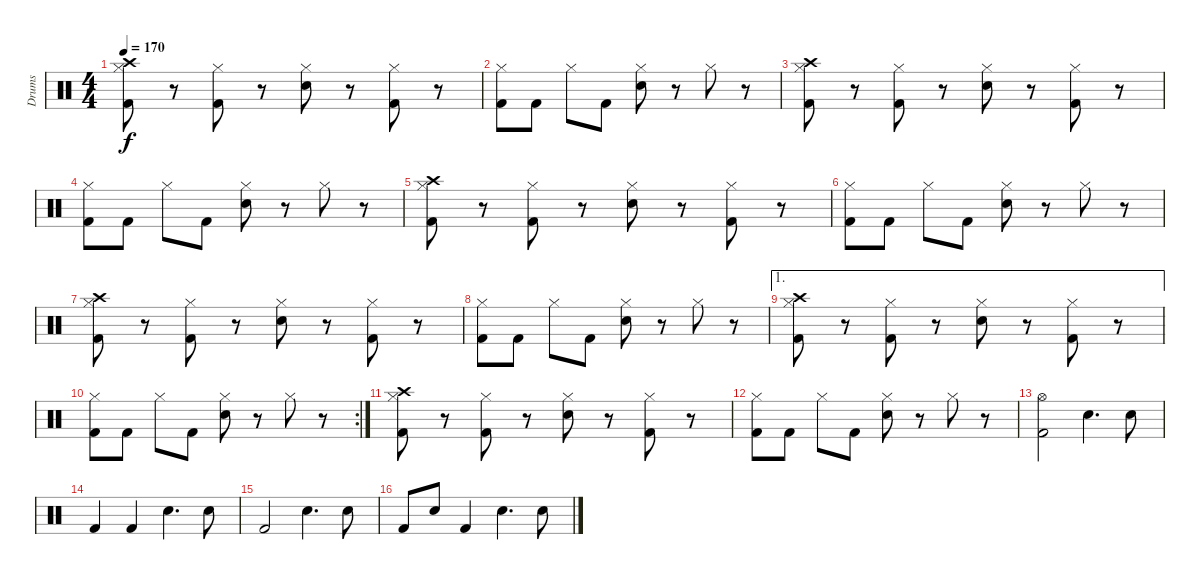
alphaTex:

\track ("Drums" "Drums") {instrument percussion}
\staff {score}
\articulation defaults
\ts (4 4)
\tempo 170
\clef neutral
\ks c
("Crash high (hit)" "Hi-Hat (closed)" "Kick (hit) 2").8{dy f} r.8 ("Hi-Hat (closed)" "Kick (hit) 2").8 r.8 ("Hi-Hat (closed)" "Snare (hit) 2").8 r.8 ("Hi-Hat (closed)" "Kick (hit) 2").8 r.8 |
("Hi-Hat (closed)" "Kick (hit) 2").8 "Kick (hit) 2".8 "Hi-Hat (closed)".8 "Kick (hit) 2".8 ("Hi-Hat (closed)" "Snare (hit) 2").8 r.8 "Hi-Hat (closed)".8 r.8 |
("Crash high (hit)" "Hi-Hat (closed)" "Kick (hit) 2").8 r.8 ("Hi-Hat (closed)" "Kick (hit) 2").8 r.8 ("Hi-Hat (closed)" "Snare (hit) 2").8 r.8 ("Hi-Hat (closed)" "Kick (hit) 2").8 r.8 |
("Hi-Hat (closed)" "Kick (hit) 2").8 "Kick (hit) 2".8 "Hi-Hat (closed)".8 "Kick (hit) 2".8 ("Hi-Hat (closed)" "Snare (hit) 2").8 r.8 "Hi-Hat (closed)".8 r.8 |
("Crash high (hit)" "Hi-Hat (closed)" "Kick (hit) 2").8 r.8 ("Hi-Hat (closed)" "Kick (hit) 2").8 r.8 ("Hi-Hat (closed)" "Snare (hit) 2").8 r.8 ("Hi-Hat (closed)" "Kick (hit) 2").8 r.8 |
("Hi-Hat (closed)" "Kick (hit) 2").8 "Kick (hit) 2".8 "Hi-Hat (closed)".8 "Kick (hit) 2".8 ("Hi-Hat (closed)" "Snare (hit) 2").8 r.8 "Hi-Hat (closed)".8 r.8 |
("Crash high (hit)" "Hi-Hat (closed)" "Kick (hit) 2").8 r.8 ("Hi-Hat (closed)" "Kick (hit) 2").8 r.8 ("Hi-Hat (closed)" "Snare (hit) 2").8 r.8 ("Hi-Hat (closed)" "Kick (hit) 2").8 r.8 |
("Hi-Hat (closed)" "Kick (hit) 2").8 "Kick (hit) 2".8 "Hi-Hat (closed)".8 "Kick (hit) 2".8 ("Hi-Hat (closed)" "Snare (hit) 2").8 r.8 "Hi-Hat (closed)".8 r.8 |
\ae 1
("Crash high (hit)" "Hi-Hat (closed)" "Kick (hit) 2").8 r.8 ("Hi-Hat (closed)" "Kick (hit) 2").8 r.8 ("Hi-Hat (closed)" "Snare (hit) 2").8 r.8 ("Hi-Hat (closed)" "Kick (hit) 2").8 r.8 |
\rc 2
("Hi-Hat (closed)" "Kick (hit) 2").8 "Kick (hit) 2".8 "Hi-Hat (closed)".8 "Kick (hit) 2".8 ("Hi-Hat (closed)" "Snare (hit) 2").8 r.8 "Hi-Hat (closed)".8 r.8 |
("Crash high (hit)" "Hi-Hat (closed)" "Kick (hit) 2").8 r.8 ("Hi-Hat (closed)" "Kick (hit) 2").8 r.8 ("Hi-Hat (closed)" "Snare (hit) 2").8 r.8 ("Hi-Hat (closed)" "Kick (hit) 2").8 r.8 |
("Hi-Hat (closed)" "Kick (hit) 2").8 "Kick (hit) 2".8 "Hi-Hat (closed)".8 "Kick (hit) 2".8 ("Hi-Hat (closed)" "Snare (hit) 2").8 r.8 "Hi-Hat (closed)".8 r.8 |
("Hi-Hat (open)" "Kick (hit) 2").2 "Snare (hit) 2".4{d} "Snare (hit) 2".8 |
"Kick (hit) 2".4 "Kick (hit) 2".4 "Snare (hit) 2".4{d} "Snare (hit) 2".8 |
"Kick (hit) 2".2 "Snare (hit) 2".4{d} "Snare (hit) 2".8 |
"Kick (hit) 2".8 "Snare (hit) 2".8 "Kick (hit) 2".4 "Snare (hit) 2".4{d} "Snare (hit) 2".8
